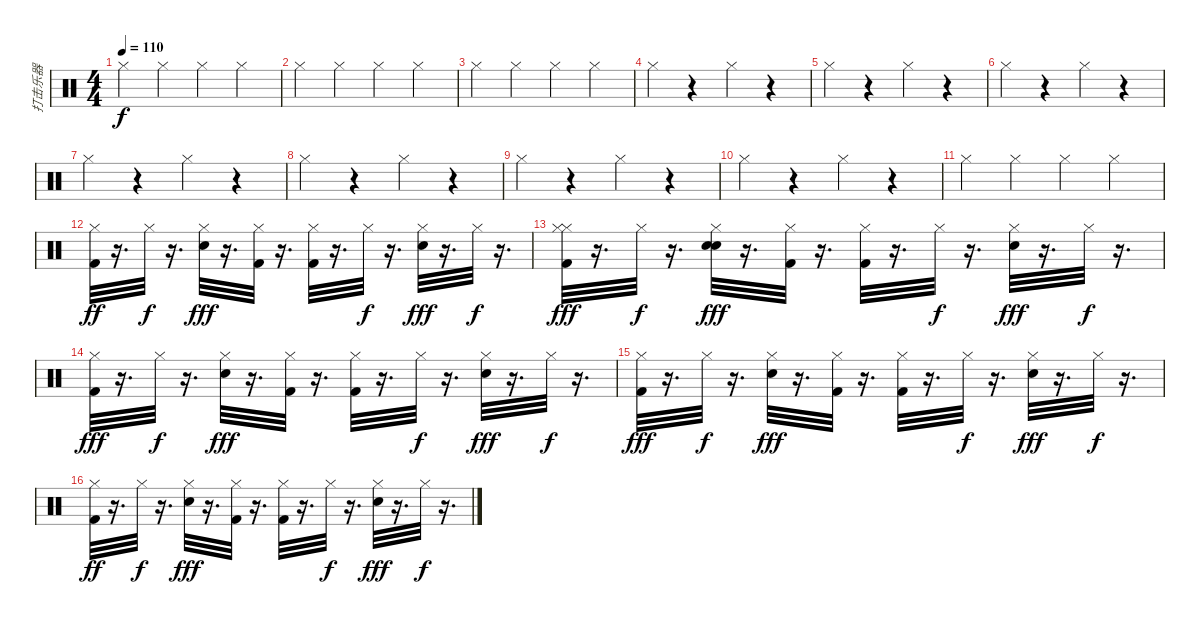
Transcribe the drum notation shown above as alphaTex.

\track ("打击乐器" "打击乐器") {instrument percussion}
\staff {score}
\articulation defaults
\ts (4 4)
\tempo 110
\clef neutral
\ks c "Hi-Hat (closed)".4{dy f} "Hi-Hat (closed)".4 "Hi-Hat (closed)".4 "Hi-Hat (closed)".4
|
"Hi-Hat (closed)".4 "Hi-Hat (closed)".4 "Hi-Hat (closed)".4 "Hi-Hat (closed)".4 |
"Hi-Hat (closed)".4 "Hi-Hat (closed)".4 "Hi-Hat (closed)".4 "Hi-Hat (closed)".4 |
"Hi-Hat (closed)".4 r.4 "Hi-Hat (closed)".4 r.4 |
"Hi-Hat (closed)".4 r.4 "Hi-Hat (closed)".4 r.4 |
"Hi-Hat (closed)".4 r.4 "Hi-Hat (closed)".4 r.4 |
"Hi-Hat (closed)".4 r.4 "Hi-Hat (closed)".4 r.4 |
"Hi-Hat (closed)".4 r.4 "Hi-Hat (closed)".4 r.4 |
"Hi-Hat (closed)".4 r.4 "Hi-Hat (closed)".4 r.4 |
"Hi-Hat (closed)".4 r.4 "Hi-Hat (closed)".4 r.4 |
"Hi-Hat (closed)".4 "Hi-Hat (closed)".4 "Hi-Hat (closed)".4 "Hi-Hat (closed)".4 |
("Kick (hit) 2" "Hi-Hat (closed)").32{dy ff} r.16{d} "Hi-Hat (closed)".32{dy f} r.16{d} ("Hi-Hat (closed)" "Electric Snare (hit)").32{dy fff} r.16{d} ("Kick (hit) 2" "Hi-Hat (closed)").32 r.16{d} ("Kick (hit) 2" "Hi-Hat (closed)").32 r.16{d} "Hi-Hat (closed)".32{dy f} r.16{d} ("Hi-Hat (closed)" "Electric Snare (hit)").32{dy fff} r.16{d} "Hi-Hat (closed)".32{dy f} r.16{d} |
("Kick (hit) 2" "Hi-Hat (closed)" "Hi-Hat (closed)").32{dy fff} r.16{d} "Hi-Hat (closed)".32{dy f} r.16{d} ("Hi-Hat (closed)" "Electric Snare (hit)" "Hand Clap (hit)").32{dy fff} r.16{d} ("Kick (hit) 2" "Hi-Hat (closed)").32 r.16{d} ("Kick (hit) 2" "Hi-Hat (closed)").32 r.16{d} "Hi-Hat (closed)".32{dy f} r.16{d} ("Hi-Hat (closed)" "Electric Snare (hit)").32{dy fff} r.16{d} "Hi-Hat (closed)".32{dy f} r.16{d} |
("Kick (hit) 2" "Hi-Hat (closed)").32{dy fff} r.16{d} "Hi-Hat (closed)".32{dy f} r.16{d} ("Hi-Hat (closed)" "Electric Snare (hit)").32{dy fff} r.16{d} ("Kick (hit) 2" "Hi-Hat (closed)").32 r.16{d} ("Kick (hit) 2" "Hi-Hat (closed)").32 r.16{d} "Hi-Hat (closed)".32{dy f} r.16{d} ("Hi-Hat (closed)" "Electric Snare (hit)").32{dy fff} r.16{d} "Hi-Hat (closed)".32{dy f} r.16{d} |
("Kick (hit) 2" "Hi-Hat (closed)").32{dy fff} r.16{d} "Hi-Hat (closed)".32{dy f} r.16{d} ("Hi-Hat (closed)" "Electric Snare (hit)").32{dy fff} r.16{d} ("Kick (hit) 2" "Hi-Hat (closed)").32 r.16{d} ("Kick (hit) 2" "Hi-Hat (closed)").32 r.16{d} "Hi-Hat (closed)".32{dy f} r.16{d} ("Hi-Hat (closed)" "Electric Snare (hit)").32{dy fff} r.16{d} "Hi-Hat (closed)".32{dy f} r.16{d} |
("Kick (hit) 2" "Hi-Hat (closed)").32{dy ff} r.16{d} "Hi-Hat (closed)".32{dy f} r.16{d} ("Hi-Hat (closed)" "Electric Snare (hit)").32{dy fff} r.16{d} ("Kick (hit) 2" "Hi-Hat (closed)").32 r.16{d} ("Kick (hit) 2" "Hi-Hat (closed)").32 r.16{d} "Hi-Hat (closed)".32{dy f} r.16{d} ("Hi-Hat (closed)" "Electric Snare (hit)").32{dy fff} r.16{d} "Hi-Hat (closed)".32{dy f} r.16{d}
